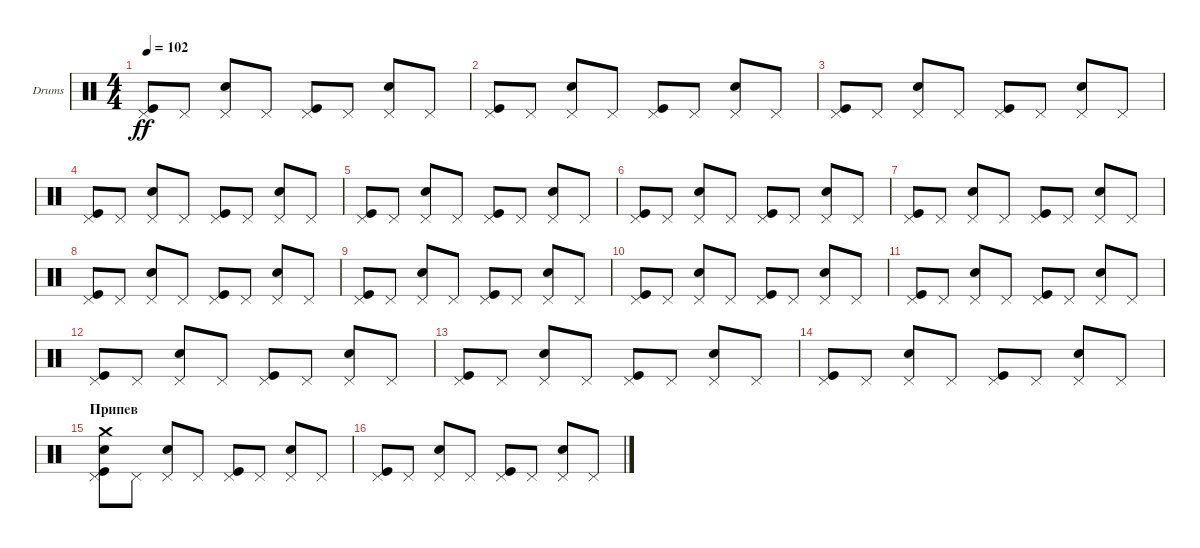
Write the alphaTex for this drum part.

\defaultSystemsLayout 4
\bracketExtendMode groupsimilarinstruments
\firstSystemTrackNameOrientation horizontal
\otherSystemsTrackNameOrientation horizontal
\track ("Е. Кулаков" "Drums") {instrument percussion}
\staff {score}
\articulation defaults
\ts (4 4)
\tempo 102
\clef neutral
\ks c
("Pedal Hi-Hat (hit)" "Kick (hit)").8{dy ff} "Pedal Hi-Hat (hit)".8 ("Pedal Hi-Hat (hit)" "Snare (hit) 2").8 "Pedal Hi-Hat (hit)".8 ("Pedal Hi-Hat (hit)" "Kick (hit)").8 "Pedal Hi-Hat (hit)".8 ("Pedal Hi-Hat (hit)" "Snare (hit) 2").8 "Pedal Hi-Hat (hit)".8 |
("Pedal Hi-Hat (hit)" "Kick (hit)").8 "Pedal Hi-Hat (hit)".8 ("Pedal Hi-Hat (hit)" "Snare (hit) 2").8 "Pedal Hi-Hat (hit)".8 ("Pedal Hi-Hat (hit)" "Kick (hit)").8 "Pedal Hi-Hat (hit)".8 ("Pedal Hi-Hat (hit)" "Snare (hit) 2").8 "Pedal Hi-Hat (hit)".8 |
("Pedal Hi-Hat (hit)" "Kick (hit)").8 "Pedal Hi-Hat (hit)".8 ("Pedal Hi-Hat (hit)" "Snare (hit) 2").8 "Pedal Hi-Hat (hit)".8 ("Pedal Hi-Hat (hit)" "Kick (hit)").8 "Pedal Hi-Hat (hit)".8 ("Pedal Hi-Hat (hit)" "Snare (hit) 2").8 "Pedal Hi-Hat (hit)".8 |
("Pedal Hi-Hat (hit)" "Kick (hit)").8 "Pedal Hi-Hat (hit)".8 ("Pedal Hi-Hat (hit)" "Snare (hit) 2").8 "Pedal Hi-Hat (hit)".8 ("Pedal Hi-Hat (hit)" "Kick (hit)").8 "Pedal Hi-Hat (hit)".8 ("Pedal Hi-Hat (hit)" "Snare (hit) 2").8 "Pedal Hi-Hat (hit)".8 |
("Pedal Hi-Hat (hit)" "Kick (hit)").8 "Pedal Hi-Hat (hit)".8 ("Pedal Hi-Hat (hit)" "Snare (hit) 2").8 "Pedal Hi-Hat (hit)".8 ("Pedal Hi-Hat (hit)" "Kick (hit)").8 "Pedal Hi-Hat (hit)".8 ("Pedal Hi-Hat (hit)" "Snare (hit) 2").8 "Pedal Hi-Hat (hit)".8 |
("Pedal Hi-Hat (hit)" "Kick (hit)").8 "Pedal Hi-Hat (hit)".8 ("Pedal Hi-Hat (hit)" "Snare (hit) 2").8 "Pedal Hi-Hat (hit)".8 ("Pedal Hi-Hat (hit)" "Kick (hit)").8 "Pedal Hi-Hat (hit)".8 ("Pedal Hi-Hat (hit)" "Snare (hit) 2").8 "Pedal Hi-Hat (hit)".8 |
("Pedal Hi-Hat (hit)" "Kick (hit)").8 "Pedal Hi-Hat (hit)".8 ("Pedal Hi-Hat (hit)" "Snare (hit) 2").8 "Pedal Hi-Hat (hit)".8 ("Pedal Hi-Hat (hit)" "Kick (hit)").8 "Pedal Hi-Hat (hit)".8 ("Pedal Hi-Hat (hit)" "Snare (hit) 2").8 "Pedal Hi-Hat (hit)".8 |
("Pedal Hi-Hat (hit)" "Kick (hit)").8 "Pedal Hi-Hat (hit)".8 ("Pedal Hi-Hat (hit)" "Snare (hit) 2").8 "Pedal Hi-Hat (hit)".8 ("Pedal Hi-Hat (hit)" "Kick (hit)").8 "Pedal Hi-Hat (hit)".8 ("Pedal Hi-Hat (hit)" "Snare (hit) 2").8 "Pedal Hi-Hat (hit)".8 |
("Pedal Hi-Hat (hit)" "Kick (hit)").8 "Pedal Hi-Hat (hit)".8 ("Pedal Hi-Hat (hit)" "Snare (hit) 2").8 "Pedal Hi-Hat (hit)".8 ("Pedal Hi-Hat (hit)" "Kick (hit)").8 "Pedal Hi-Hat (hit)".8 ("Pedal Hi-Hat (hit)" "Snare (hit) 2").8 "Pedal Hi-Hat (hit)".8 |
("Pedal Hi-Hat (hit)" "Kick (hit)").8 "Pedal Hi-Hat (hit)".8 ("Pedal Hi-Hat (hit)" "Snare (hit) 2").8 "Pedal Hi-Hat (hit)".8 ("Pedal Hi-Hat (hit)" "Kick (hit)").8 "Pedal Hi-Hat (hit)".8 ("Pedal Hi-Hat (hit)" "Snare (hit) 2").8 "Pedal Hi-Hat (hit)".8 |
("Pedal Hi-Hat (hit)" "Kick (hit)").8 "Pedal Hi-Hat (hit)".8 ("Pedal Hi-Hat (hit)" "Snare (hit) 2").8 "Pedal Hi-Hat (hit)".8 ("Pedal Hi-Hat (hit)" "Kick (hit)").8 "Pedal Hi-Hat (hit)".8 ("Pedal Hi-Hat (hit)" "Snare (hit) 2").8 "Pedal Hi-Hat (hit)".8 |
("Pedal Hi-Hat (hit)" "Kick (hit)").8 "Pedal Hi-Hat (hit)".8 ("Pedal Hi-Hat (hit)" "Snare (hit) 2").8 "Pedal Hi-Hat (hit)".8 ("Pedal Hi-Hat (hit)" "Kick (hit)").8 "Pedal Hi-Hat (hit)".8 ("Pedal Hi-Hat (hit)" "Snare (hit) 2").8 "Pedal Hi-Hat (hit)".8 |
("Pedal Hi-Hat (hit)" "Kick (hit)").8 "Pedal Hi-Hat (hit)".8 ("Pedal Hi-Hat (hit)" "Snare (hit) 2").8 "Pedal Hi-Hat (hit)".8 ("Pedal Hi-Hat (hit)" "Kick (hit)").8 "Pedal Hi-Hat (hit)".8 ("Pedal Hi-Hat (hit)" "Snare (hit) 2").8 "Pedal Hi-Hat (hit)".8 |
("Pedal Hi-Hat (hit)" "Kick (hit)").8 "Pedal Hi-Hat (hit)".8 ("Pedal Hi-Hat (hit)" "Snare (hit) 2").8 "Pedal Hi-Hat (hit)".8 ("Pedal Hi-Hat (hit)" "Kick (hit)").8 "Pedal Hi-Hat (hit)".8 ("Pedal Hi-Hat (hit)" "Snare (hit) 2").8 "Pedal Hi-Hat (hit)".8 |
\section ("" "Припев")
("Pedal Hi-Hat (hit)" "Kick (hit)" "Crash medium (hit)" "Snare (hit) 2").8 "Pedal Hi-Hat (hit)".8 ("Pedal Hi-Hat (hit)" "Snare (hit) 2").8 "Pedal Hi-Hat (hit)".8 ("Pedal Hi-Hat (hit)" "Kick (hit)").8 "Pedal Hi-Hat (hit)".8 ("Pedal Hi-Hat (hit)" "Snare (hit) 2").8 "Pedal Hi-Hat (hit)".8 |
("Pedal Hi-Hat (hit)" "Kick (hit)").8 "Pedal Hi-Hat (hit)".8 ("Pedal Hi-Hat (hit)" "Snare (hit) 2").8 "Pedal Hi-Hat (hit)".8 ("Pedal Hi-Hat (hit)" "Kick (hit)").8 "Pedal Hi-Hat (hit)".8 ("Pedal Hi-Hat (hit)" "Snare (hit) 2").8 "Pedal Hi-Hat (hit)".8
